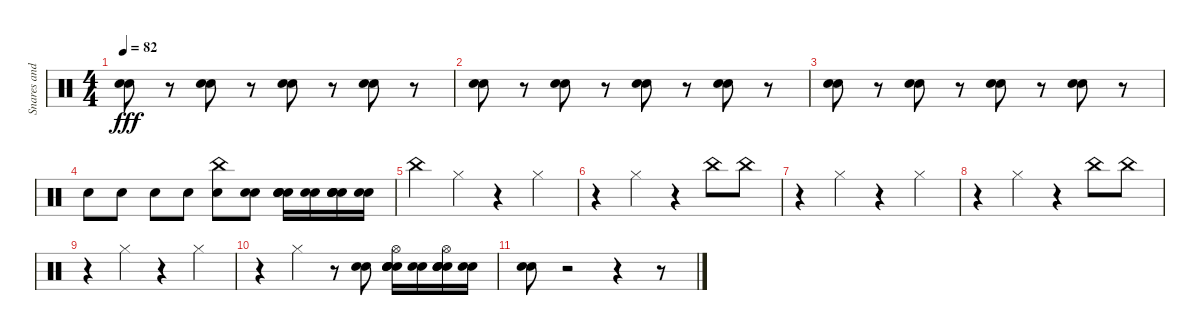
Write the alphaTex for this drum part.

\track ("Snares and Cymbals" "Snares and") {instrument percussion}
\staff {score}
\articulation defaults
\ts (4 4)
\tempo 82
\clef neutral
\ks c
("Snare (hit) 2" "Electric Snare (hit)").8{dy fff} r.8 ("Snare (hit) 2" "Electric Snare (hit)").8 r.8 ("Snare (hit) 2" "Electric Snare (hit)").8 r.8 ("Snare (hit) 2" "Electric Snare (hit)").8 r.8 |
("Snare (hit) 2" "Electric Snare (hit)").8 r.8 ("Snare (hit) 2" "Electric Snare (hit)").8 r.8 ("Snare (hit) 2" "Electric Snare (hit)").8 r.8 ("Snare (hit) 2" "Electric Snare (hit)").8 r.8 |
("Snare (hit) 2" "Electric Snare (hit)").8 r.8 ("Snare (hit) 2" "Electric Snare (hit)").8 r.8 ("Snare (hit) 2" "Electric Snare (hit)").8 r.8 ("Snare (hit) 2" "Electric Snare (hit)").8 r.8 |
"Electric Snare (hit)".8 "Electric Snare (hit)".8 "Electric Snare (hit)".8 "Electric Snare (hit)".8 ("China (hit)" "Electric Snare (hit)").8 ("Snare (hit) 2" "Electric Snare (hit)").8 ("Snare (hit) 2" "Electric Snare (hit)" "Electric Snare (hit)" "Snare (hit) 2").16 ("Electric Snare (hit)" "Snare (hit) 2").16 ("Snare (hit) 2" "Electric Snare (hit)" "Electric Snare (hit)" "Snare (hit) 2").16 ("Electric Snare (hit)" "Snare (hit) 2").16 |
"China (hit)".4 "Hi-Hat (closed)".4 r.4 "Hi-Hat (closed)".4 |
r.4 "Hi-Hat (closed)".4 r.4 "China (hit)".8 "China (hit)".8 |
r.4 "Hi-Hat (closed)".4 r.4 "Hi-Hat (closed)".4 |
r.4 "Hi-Hat (closed)".4 r.4 "China (hit)".8 "China (hit)".8 |
r.4 "Hi-Hat (closed)".4 r.4 "Hi-Hat (closed)".4 |
r.4 "Hi-Hat (closed)".4 r.8 ("Snare (hit) 2" "Electric Snare (hit)").8 ("Hi-Hat (open)" "Snare (hit) 2" "Electric Snare (hit)" "Electric Snare (hit)" "Snare (hit) 2").16 ("Electric Snare (hit)" "Snare (hit) 2").16 ("Hi-Hat (open)" "Snare (hit) 2" "Electric Snare (hit)" "Electric Snare (hit)" "Snare (hit) 2").16 ("Electric Snare (hit)" "Snare (hit) 2").16 |
("Snare (hit) 2" "Electric Snare (hit)").8 r.2 r.4 r.8
